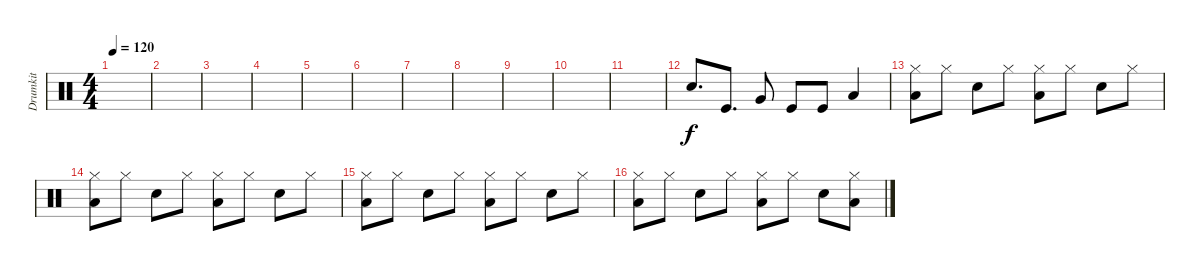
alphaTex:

\track ("Drumkit" "Drumkit") {instrument percussion}
\staff {score}
\articulation defaults
\ts (4 4)
\tempo 120
\clef neutral
\ks c
|
|
|
|
|
|
|
|
|
|
|
"Snare (hit) 2".8{d} "Kick (hit)".8{d} "Very Low Tom (hit)".8 "Kick (hit)".8 "Kick (hit)".8 "Low Tom (hit)".4 |
("Hi-Hat (closed)" "Low Floor Tom (hit)").8 "Hi-Hat (closed)".8 "Snare (hit) 2".8 "Hi-Hat (closed)".8 ("Hi-Hat (closed)" "Low Floor Tom (hit)").8 "Hi-Hat (closed)".8 "Snare (hit) 2".8 "Hi-Hat (closed)".8 |
("Hi-Hat (closed)" "Low Floor Tom (hit)").8 "Hi-Hat (closed)".8 "Snare (hit) 2".8 "Hi-Hat (closed)".8 ("Hi-Hat (closed)" "Low Floor Tom (hit)").8 "Hi-Hat (closed)".8 "Snare (hit) 2".8 "Hi-Hat (closed)".8 |
("Hi-Hat (closed)" "Low Floor Tom (hit)").8 "Hi-Hat (closed)".8 "Snare (hit) 2".8 "Hi-Hat (closed)".8 ("Hi-Hat (closed)" "Low Floor Tom (hit)").8 "Hi-Hat (closed)".8 "Snare (hit) 2".8 "Hi-Hat (closed)".8 |
("Hi-Hat (closed)" "Low Floor Tom (hit)").8 "Hi-Hat (closed)".8 "Snare (hit) 2".8 "Hi-Hat (closed)".8 ("Hi-Hat (closed)" "Low Floor Tom (hit)").8 "Hi-Hat (closed)".8 "Snare (hit) 2".8 ("Hi-Hat (closed)" "Low Floor Tom (hit)").8
